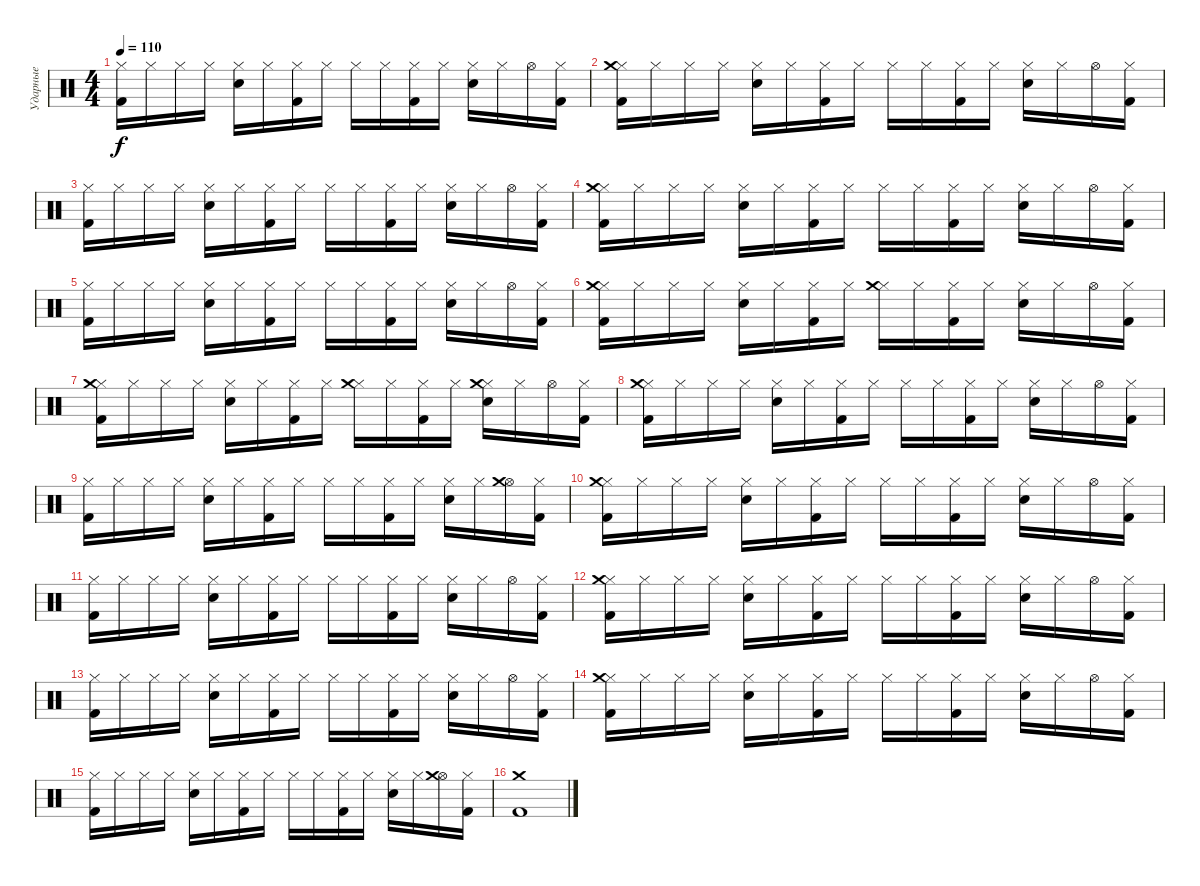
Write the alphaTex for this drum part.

\track ("Ударные" "Ударные") {instrument percussion}
\staff {score}
\articulation defaults
\ts (4 4)
\tempo 110
\clef neutral
\ks c
("Hi-Hat (closed)" "Kick (hit) 2").16{dy f} "Hi-Hat (closed)".16 "Hi-Hat (closed)".16 "Hi-Hat (closed)".16 ("Hi-Hat (closed)" "Electric Snare (hit)").16 "Hi-Hat (closed)".16 ("Hi-Hat (closed)" "Kick (hit) 2").16 "Hi-Hat (closed)".16 "Hi-Hat (closed)".16 "Hi-Hat (closed)".16 ("Hi-Hat (closed)" "Kick (hit) 2").16 "Hi-Hat (closed)".16 ("Hi-Hat (closed)" "Electric Snare (hit)").16 "Hi-Hat (closed)".16 "Hi-Hat (open)".16 ("Hi-Hat (closed)" "Kick (hit) 2").16 |
("Hi-Hat (closed)" "Kick (hit) 2" "Crash medium (hit)").16 "Hi-Hat (closed)".16 "Hi-Hat (closed)".16 "Hi-Hat (closed)".16 ("Hi-Hat (closed)" "Electric Snare (hit)").16 "Hi-Hat (closed)".16 ("Hi-Hat (closed)" "Kick (hit) 2").16 "Hi-Hat (closed)".16 "Hi-Hat (closed)".16 "Hi-Hat (closed)".16 ("Hi-Hat (closed)" "Kick (hit) 2").16 "Hi-Hat (closed)".16 ("Hi-Hat (closed)" "Electric Snare (hit)").16 "Hi-Hat (closed)".16 "Hi-Hat (open)".16 ("Hi-Hat (closed)" "Kick (hit) 2").16 |
("Hi-Hat (closed)" "Kick (hit) 2").16 "Hi-Hat (closed)".16 "Hi-Hat (closed)".16 "Hi-Hat (closed)".16 ("Hi-Hat (closed)" "Electric Snare (hit)").16 "Hi-Hat (closed)".16 ("Hi-Hat (closed)" "Kick (hit) 2").16 "Hi-Hat (closed)".16 "Hi-Hat (closed)".16 "Hi-Hat (closed)".16 ("Hi-Hat (closed)" "Kick (hit) 2").16 "Hi-Hat (closed)".16 ("Hi-Hat (closed)" "Electric Snare (hit)").16 "Hi-Hat (closed)".16 "Hi-Hat (open)".16 ("Hi-Hat (closed)" "Kick (hit) 2").16 |
("Hi-Hat (closed)" "Kick (hit) 2" "Crash medium (hit)").16 "Hi-Hat (closed)".16 "Hi-Hat (closed)".16 "Hi-Hat (closed)".16 ("Hi-Hat (closed)" "Electric Snare (hit)").16 "Hi-Hat (closed)".16 ("Hi-Hat (closed)" "Kick (hit) 2").16 "Hi-Hat (closed)".16 "Hi-Hat (closed)".16 "Hi-Hat (closed)".16 ("Hi-Hat (closed)" "Kick (hit) 2").16 "Hi-Hat (closed)".16 ("Hi-Hat (closed)" "Electric Snare (hit)").16 "Hi-Hat (closed)".16 "Hi-Hat (open)".16 ("Hi-Hat (closed)" "Kick (hit) 2").16 |
("Hi-Hat (closed)" "Kick (hit) 2").16 "Hi-Hat (closed)".16 "Hi-Hat (closed)".16 "Hi-Hat (closed)".16 ("Hi-Hat (closed)" "Electric Snare (hit)").16 "Hi-Hat (closed)".16 ("Hi-Hat (closed)" "Kick (hit) 2").16 "Hi-Hat (closed)".16 "Hi-Hat (closed)".16 "Hi-Hat (closed)".16 ("Hi-Hat (closed)" "Kick (hit) 2").16 "Hi-Hat (closed)".16 ("Hi-Hat (closed)" "Electric Snare (hit)").16 "Hi-Hat (closed)".16 "Hi-Hat (open)".16 ("Hi-Hat (closed)" "Kick (hit) 2").16 |
("Hi-Hat (closed)" "Kick (hit) 2" "Crash medium (hit)").16 "Hi-Hat (closed)".16 "Hi-Hat (closed)".16 "Hi-Hat (closed)".16 ("Hi-Hat (closed)" "Electric Snare (hit)").16 "Hi-Hat (closed)".16 ("Hi-Hat (closed)" "Kick (hit) 2").16 "Hi-Hat (closed)".16 ("Hi-Hat (closed)" "Crash medium (hit)").16 "Hi-Hat (closed)".16 ("Hi-Hat (closed)" "Kick (hit) 2").16 "Hi-Hat (closed)".16 ("Hi-Hat (closed)" "Electric Snare (hit)").16 "Hi-Hat (closed)".16 "Hi-Hat (open)".16 ("Hi-Hat (closed)" "Kick (hit) 2").16 |
("Hi-Hat (closed)" "Kick (hit) 2" "Crash medium (hit)").16 "Hi-Hat (closed)".16 "Hi-Hat (closed)".16 "Hi-Hat (closed)".16 ("Hi-Hat (closed)" "Electric Snare (hit)").16 "Hi-Hat (closed)".16 ("Hi-Hat (closed)" "Kick (hit) 2").16 "Hi-Hat (closed)".16 ("Hi-Hat (closed)" "Crash medium (hit)").16 "Hi-Hat (closed)".16 ("Hi-Hat (closed)" "Kick (hit) 2").16 "Hi-Hat (closed)".16 ("Hi-Hat (closed)" "Electric Snare (hit)" "Crash medium (hit)").16 "Hi-Hat (closed)".16 "Hi-Hat (open)".16 ("Hi-Hat (closed)" "Kick (hit) 2").16 |
("Hi-Hat (closed)" "Kick (hit) 2" "Crash medium (hit)").16 "Hi-Hat (closed)".16 "Hi-Hat (closed)".16 "Hi-Hat (closed)".16 ("Hi-Hat (closed)" "Electric Snare (hit)").16 "Hi-Hat (closed)".16 ("Hi-Hat (closed)" "Kick (hit) 2").16 "Hi-Hat (closed)".16 "Hi-Hat (closed)".16 "Hi-Hat (closed)".16 ("Hi-Hat (closed)" "Kick (hit) 2").16 "Hi-Hat (closed)".16 ("Hi-Hat (closed)" "Electric Snare (hit)").16 "Hi-Hat (closed)".16 "Hi-Hat (open)".16 ("Hi-Hat (closed)" "Kick (hit) 2").16 |
("Hi-Hat (closed)" "Kick (hit) 2").16 "Hi-Hat (closed)".16 "Hi-Hat (closed)".16 "Hi-Hat (closed)".16 ("Hi-Hat (closed)" "Electric Snare (hit)").16 "Hi-Hat (closed)".16 ("Hi-Hat (closed)" "Kick (hit) 2").16 "Hi-Hat (closed)".16 "Hi-Hat (closed)".16 "Hi-Hat (closed)".16 ("Hi-Hat (closed)" "Kick (hit) 2").16 "Hi-Hat (closed)".16 ("Hi-Hat (closed)" "Electric Snare (hit)").16 "Hi-Hat (closed)".16 ("Hi-Hat (open)" "Crash medium (hit)").16 ("Hi-Hat (closed)" "Kick (hit) 2").16 |
("Hi-Hat (closed)" "Kick (hit) 2" "Crash medium (hit)").16 "Hi-Hat (closed)".16 "Hi-Hat (closed)".16 "Hi-Hat (closed)".16 ("Hi-Hat (closed)" "Electric Snare (hit)").16 "Hi-Hat (closed)".16 ("Hi-Hat (closed)" "Kick (hit) 2").16 "Hi-Hat (closed)".16 "Hi-Hat (closed)".16 "Hi-Hat (closed)".16 ("Hi-Hat (closed)" "Kick (hit) 2").16 "Hi-Hat (closed)".16 ("Hi-Hat (closed)" "Electric Snare (hit)").16 "Hi-Hat (closed)".16 "Hi-Hat (open)".16 ("Hi-Hat (closed)" "Kick (hit) 2").16 |
("Hi-Hat (closed)" "Kick (hit) 2").16 "Hi-Hat (closed)".16 "Hi-Hat (closed)".16 "Hi-Hat (closed)".16 ("Hi-Hat (closed)" "Electric Snare (hit)").16 "Hi-Hat (closed)".16 ("Hi-Hat (closed)" "Kick (hit) 2").16 "Hi-Hat (closed)".16 "Hi-Hat (closed)".16 "Hi-Hat (closed)".16 ("Hi-Hat (closed)" "Kick (hit) 2").16 "Hi-Hat (closed)".16 ("Hi-Hat (closed)" "Electric Snare (hit)").16 "Hi-Hat (closed)".16 "Hi-Hat (open)".16 ("Hi-Hat (closed)" "Kick (hit) 2").16 |
("Hi-Hat (closed)" "Kick (hit) 2" "Crash medium (hit)").16 "Hi-Hat (closed)".16 "Hi-Hat (closed)".16 "Hi-Hat (closed)".16 ("Hi-Hat (closed)" "Electric Snare (hit)").16 "Hi-Hat (closed)".16 ("Hi-Hat (closed)" "Kick (hit) 2").16 "Hi-Hat (closed)".16 "Hi-Hat (closed)".16 "Hi-Hat (closed)".16 ("Hi-Hat (closed)" "Kick (hit) 2").16 "Hi-Hat (closed)".16 ("Hi-Hat (closed)" "Electric Snare (hit)").16 "Hi-Hat (closed)".16 "Hi-Hat (open)".16 ("Hi-Hat (closed)" "Kick (hit) 2").16 |
("Hi-Hat (closed)" "Kick (hit) 2").16 "Hi-Hat (closed)".16 "Hi-Hat (closed)".16 "Hi-Hat (closed)".16 ("Hi-Hat (closed)" "Electric Snare (hit)").16 "Hi-Hat (closed)".16 ("Hi-Hat (closed)" "Kick (hit) 2").16 "Hi-Hat (closed)".16 "Hi-Hat (closed)".16 "Hi-Hat (closed)".16 ("Hi-Hat (closed)" "Kick (hit) 2").16 "Hi-Hat (closed)".16 ("Hi-Hat (closed)" "Electric Snare (hit)").16 "Hi-Hat (closed)".16 "Hi-Hat (open)".16 ("Hi-Hat (closed)" "Kick (hit) 2").16 |
("Hi-Hat (closed)" "Kick (hit) 2" "Crash medium (hit)").16 "Hi-Hat (closed)".16 "Hi-Hat (closed)".16 "Hi-Hat (closed)".16 ("Hi-Hat (closed)" "Electric Snare (hit)").16 "Hi-Hat (closed)".16 ("Hi-Hat (closed)" "Kick (hit) 2").16 "Hi-Hat (closed)".16 "Hi-Hat (closed)".16 "Hi-Hat (closed)".16 ("Hi-Hat (closed)" "Kick (hit) 2").16 "Hi-Hat (closed)".16 ("Hi-Hat (closed)" "Electric Snare (hit)").16 "Hi-Hat (closed)".16 "Hi-Hat (open)".16 ("Hi-Hat (closed)" "Kick (hit) 2").16 |
("Hi-Hat (closed)" "Kick (hit) 2").16 "Hi-Hat (closed)".16 "Hi-Hat (closed)".16 "Hi-Hat (closed)".16 ("Hi-Hat (closed)" "Electric Snare (hit)").16 "Hi-Hat (closed)".16 ("Hi-Hat (closed)" "Kick (hit) 2").16 "Hi-Hat (closed)".16 "Hi-Hat (closed)".16 "Hi-Hat (closed)".16 ("Hi-Hat (closed)" "Kick (hit) 2").16 "Hi-Hat (closed)".16 ("Hi-Hat (closed)" "Electric Snare (hit)").16 "Hi-Hat (closed)".16 ("Hi-Hat (open)" "Crash medium (hit)").16 ("Hi-Hat (closed)" "Kick (hit) 2").16 |
("Crash medium (hit)" "Kick (hit) 2").1
